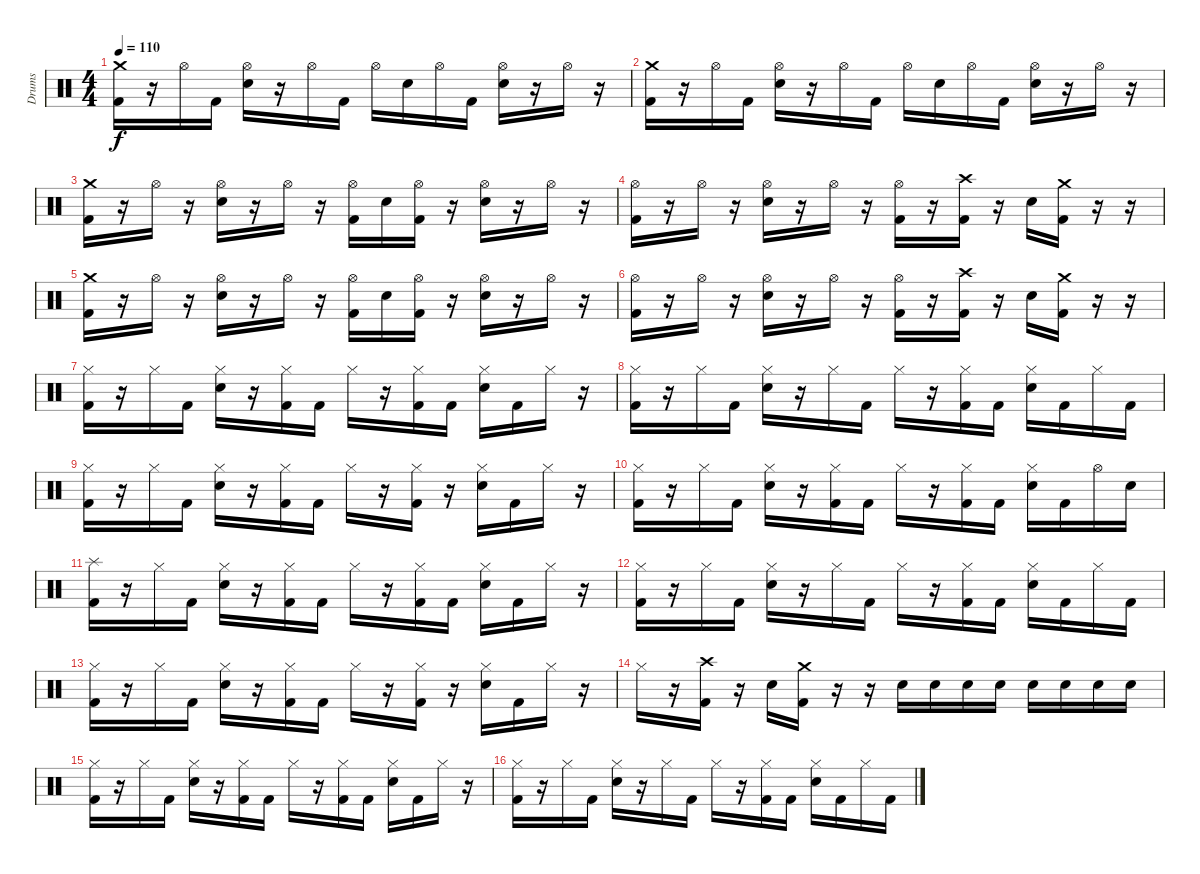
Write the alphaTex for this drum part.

\track ("Drums" "Drums") {instrument percussion}
\staff {score}
\articulation defaults
\ts (4 4)
\tempo 110
\clef neutral
\ks c
("Crash medium (hit)" "Kick (hit) 2").16{dy f} r.16 "Hi-Hat (open)".16 "Kick (hit) 2".16 ("Hi-Hat (open)" "Electric Snare (hit)").16 r.16 "Hi-Hat (open)".16 "Kick (hit) 2".16 "Hi-Hat (open)".16 "Electric Snare (hit)".16 "Hi-Hat (open)".16 "Kick (hit) 2".16 ("Hi-Hat (open)" "Electric Snare (hit)").16 r.16 "Hi-Hat (open)".16 r.16 |
("Crash medium (hit)" "Kick (hit) 2").16 r.16 "Hi-Hat (open)".16 "Kick (hit) 2".16 ("Hi-Hat (open)" "Electric Snare (hit)").16 r.16 "Hi-Hat (open)".16 "Kick (hit) 2".16 "Hi-Hat (open)".16 "Electric Snare (hit)".16 "Hi-Hat (open)".16 "Kick (hit) 2".16 ("Hi-Hat (open)" "Electric Snare (hit)").16 r.16 "Hi-Hat (open)".16 r.16 |
("Crash medium (hit)" "Kick (hit) 2").16 r.16 "Hi-Hat (open)".16 r.16 ("Hi-Hat (open)" "Electric Snare (hit)").16 r.16 "Hi-Hat (open)".16 r.16 ("Hi-Hat (open)" "Kick (hit) 2").16 "Electric Snare (hit)".16 ("Hi-Hat (open)" "Kick (hit) 2").16 r.16 ("Hi-Hat (open)" "Electric Snare (hit)").16 r.16 "Hi-Hat (open)".16 r.16 |
("Hi-Hat (open)" "Kick (hit) 2").16 r.16 "Hi-Hat (open)".16 r.16 ("Hi-Hat (open)" "Electric Snare (hit)").16 r.16 "Hi-Hat (open)".16 r.16 ("Hi-Hat (open)" "Kick (hit) 2").16 r.16 ("Crash high (hit)" "Kick (hit) 2").16 r.16 "Electric Snare (hit)".16 ("Crash medium (hit)" "Kick (hit) 2").16 r.16 r.16 |
("Crash medium (hit)" "Kick (hit) 2").16 r.16 "Hi-Hat (open)".16 r.16 ("Hi-Hat (open)" "Electric Snare (hit)").16 r.16 "Hi-Hat (open)".16 r.16 ("Hi-Hat (open)" "Kick (hit) 2").16 "Electric Snare (hit)".16 ("Hi-Hat (open)" "Kick (hit) 2").16 r.16 ("Hi-Hat (open)" "Electric Snare (hit)").16 r.16 "Hi-Hat (open)".16 r.16 |
("Hi-Hat (open)" "Kick (hit) 2").16 r.16 "Hi-Hat (open)".16 r.16 ("Hi-Hat (open)" "Electric Snare (hit)").16 r.16 "Hi-Hat (open)".16 r.16 ("Hi-Hat (open)" "Kick (hit) 2").16 r.16 ("Crash high (hit)" "Kick (hit) 2").16 r.16 "Electric Snare (hit)".16 ("Crash medium (hit)" "Kick (hit) 2").16 r.16 r.16 |
("Hi-Hat (closed)" "Kick (hit) 2").16 r.16 "Hi-Hat (closed)".16 "Kick (hit) 2".16 ("Hi-Hat (closed)" "Electric Snare (hit)").16 r.16 ("Hi-Hat (closed)" "Kick (hit) 2").16 "Kick (hit) 2".16 "Hi-Hat (closed)".16 r.16 ("Hi-Hat (closed)" "Kick (hit) 2").16 "Kick (hit) 2".16 ("Hi-Hat (closed)" "Electric Snare (hit)").16 "Kick (hit) 2".16 "Hi-Hat (closed)".16 r.16 |
("Hi-Hat (closed)" "Kick (hit) 2").16 r.16 "Hi-Hat (closed)".16 "Kick (hit) 2".16 ("Hi-Hat (closed)" "Electric Snare (hit)").16 r.16 "Hi-Hat (closed)".16 "Kick (hit) 2".16 "Hi-Hat (closed)".16 r.16 ("Hi-Hat (closed)" "Kick (hit) 2").16 "Kick (hit) 2".16 ("Hi-Hat (closed)" "Electric Snare (hit)").16 "Kick (hit) 2".16 "Hi-Hat (closed)".16 "Kick (hit) 2".16 |
("Hi-Hat (closed)" "Kick (hit) 2").16 r.16 "Hi-Hat (closed)".16 "Kick (hit) 2".16 ("Hi-Hat (closed)" "Electric Snare (hit)").16 r.16 ("Hi-Hat (closed)" "Kick (hit) 2").16 "Kick (hit) 2".16 "Hi-Hat (closed)".16 r.16 ("Hi-Hat (closed)" "Kick (hit) 2").16 r.16 ("Hi-Hat (closed)" "Electric Snare (hit)").16 "Kick (hit) 2".16 "Hi-Hat (closed)".16 r.16 |
("Hi-Hat (closed)" "Kick (hit) 2").16 r.16 "Hi-Hat (closed)".16 "Kick (hit) 2".16 ("Hi-Hat (closed)" "Electric Snare (hit)").16 r.16 ("Hi-Hat (closed)" "Kick (hit) 2").16 "Kick (hit) 2".16 "Hi-Hat (closed)".16 r.16 ("Hi-Hat (closed)" "Kick (hit) 2").16 "Kick (hit) 2".16 ("Hi-Hat (closed)" "Electric Snare (hit)").16 "Kick (hit) 2".16 "Hi-Hat (open)".16 "Electric Snare (hit)".16 |
("Splash (hit)" "Kick (hit) 2").16 r.16 "Hi-Hat (closed)".16 "Kick (hit) 2".16 ("Hi-Hat (closed)" "Electric Snare (hit)").16 r.16 ("Hi-Hat (closed)" "Kick (hit) 2").16 "Kick (hit) 2".16 "Hi-Hat (closed)".16 r.16 ("Hi-Hat (closed)" "Kick (hit) 2").16 "Kick (hit) 2".16 ("Hi-Hat (closed)" "Electric Snare (hit)").16 "Kick (hit) 2".16 "Hi-Hat (closed)".16 r.16 |
("Hi-Hat (closed)" "Kick (hit) 2").16 r.16 "Hi-Hat (closed)".16 "Kick (hit) 2".16 ("Hi-Hat (closed)" "Electric Snare (hit)").16 r.16 "Hi-Hat (closed)".16 "Kick (hit) 2".16 "Hi-Hat (closed)".16 r.16 ("Hi-Hat (closed)" "Kick (hit) 2").16 "Kick (hit) 2".16 ("Hi-Hat (closed)" "Electric Snare (hit)").16 "Kick (hit) 2".16 "Hi-Hat (closed)".16 "Kick (hit) 2".16 |
("Hi-Hat (closed)" "Kick (hit) 2").16 r.16 "Hi-Hat (closed)".16 "Kick (hit) 2".16 ("Hi-Hat (closed)" "Electric Snare (hit)").16 r.16 ("Hi-Hat (closed)" "Kick (hit) 2").16 "Kick (hit) 2".16 "Hi-Hat (closed)".16 r.16 ("Hi-Hat (closed)" "Kick (hit) 2").16 r.16 ("Hi-Hat (closed)" "Electric Snare (hit)").16 "Kick (hit) 2".16 "Hi-Hat (closed)".16 r.16 |
"Hi-Hat (closed)".16 r.16 ("Crash high (hit)" "Kick (hit) 2").16 r.16 "Electric Snare (hit)".16 ("Crash medium (hit)" "Kick (hit) 2").16 r.16 r.16 "Electric Snare (hit)".16 "Electric Snare (hit)".16 "Electric Snare (hit)".16 "Electric Snare (hit)".16 "Electric Snare (hit)".16 "Electric Snare (hit)".16 "Electric Snare (hit)".16 "Electric Snare (hit)".16 |
("Hi-Hat (closed)" "Kick (hit) 2").16 r.16 "Hi-Hat (closed)".16 "Kick (hit) 2".16 ("Hi-Hat (closed)" "Electric Snare (hit)").16 r.16 ("Hi-Hat (closed)" "Kick (hit) 2").16 "Kick (hit) 2".16 "Hi-Hat (closed)".16 r.16 ("Hi-Hat (closed)" "Kick (hit) 2").16 "Kick (hit) 2".16 ("Hi-Hat (closed)" "Electric Snare (hit)").16 "Kick (hit) 2".16 "Hi-Hat (closed)".16 r.16 |
("Hi-Hat (closed)" "Kick (hit) 2").16 r.16 "Hi-Hat (closed)".16 "Kick (hit) 2".16 ("Hi-Hat (closed)" "Electric Snare (hit)").16 r.16 "Hi-Hat (closed)".16 "Kick (hit) 2".16 "Hi-Hat (closed)".16 r.16 ("Hi-Hat (closed)" "Kick (hit) 2").16 "Kick (hit) 2".16 ("Hi-Hat (closed)" "Electric Snare (hit)").16 "Kick (hit) 2".16 "Hi-Hat (closed)".16 "Kick (hit) 2".16
